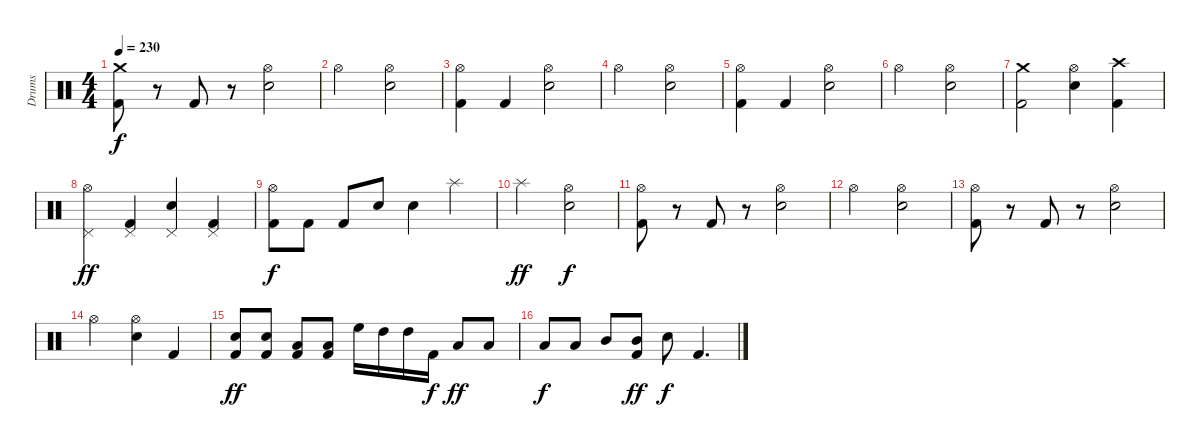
\track ("Drums" "Drums") {instrument percussion}
\staff {score}
\articulation defaults
\ts (4 4)
\tempo 230
\clef neutral
\ks c
("Crash medium (hit)" "Kick (hit) 2").8{dy f} r.8 "Kick (hit) 2".8 r.8 ("Hi-Hat (open)" "Electric Snare (hit)").2 |
"Hi-Hat (open)".2 ("Hi-Hat (open)" "Electric Snare (hit)").2 |
("Hi-Hat (open)" "Kick (hit) 2").4 "Kick (hit) 2".4 ("Hi-Hat (open)" "Electric Snare (hit)").2 |
"Hi-Hat (open)".2 ("Hi-Hat (open)" "Electric Snare (hit)").2 |
("Hi-Hat (open)" "Kick (hit) 2").4 "Kick (hit) 2".4 ("Hi-Hat (open)" "Electric Snare (hit)").2 |
"Hi-Hat (open)".2 ("Hi-Hat (open)" "Electric Snare (hit)").2 |
("Crash medium (hit)" "Kick (hit) 2").2 ("Hi-Hat (open)" "Electric Snare (hit)").4 ("Crash high (hit)" "Kick (hit) 2").4 |
("Pedal Hi-Hat (hit)" "Hi-Hat (open)").4{dy ff} ("Pedal Hi-Hat (hit)" "Kick (hit) 2").4 ("Pedal Hi-Hat (hit)" "Electric Snare (hit)").4 ("Pedal Hi-Hat (hit)" "Kick (hit) 2").4 |
("Hi-Hat (open)" "Kick (hit) 2").8{dy f} "Kick (hit) 2".8 "Kick (hit) 2".8 "Electric Snare (hit)".8 "Electric Snare (hit)".4 "Splash (hit)".4 |
"Splash (hit)".2{dy ff} ("Hi-Hat (open)" "Electric Snare (hit)").2{dy f} |
("Hi-Hat (open)" "Kick (hit) 2").8 r.8 "Kick (hit) 2".8 r.8 ("Hi-Hat (open)" "Electric Snare (hit)").2 |
"Hi-Hat (open)".2 ("Hi-Hat (open)" "Electric Snare (hit)").2 |
("Hi-Hat (open)" "Kick (hit) 2").8 r.8 "Kick (hit) 2".8 r.8 ("Hi-Hat (open)" "Electric Snare (hit)").2 |
"Hi-Hat (open)".2 ("Hi-Hat (open)" "Electric Snare (hit)").4 "Kick (hit) 2".4 |
("Electric Snare (hit)" "Kick (hit) 2").8{dy ff} ("Electric Snare (hit)" "Kick (hit) 2").8 ("Low Tom (hit)" "Kick (hit) 2").8 ("Low Tom (hit)" "Kick (hit) 2").8 "High Floor Tom (hit)".16 "High Tom (hit)".16 "High Tom (hit)".16 "Kick (hit) 2".16{dy f} "Low Tom (hit)".8{dy ff} "Low Tom (hit)".8 |
"Low Tom (hit)".8{dy f} "Low Tom (hit)".8 "Mid Tom (hit)".8 ("Mid Tom (hit)" "Kick (hit) 2").8{dy ff} "Electric Snare (hit)".8{dy f} "Kick (hit) 2".4{d}
